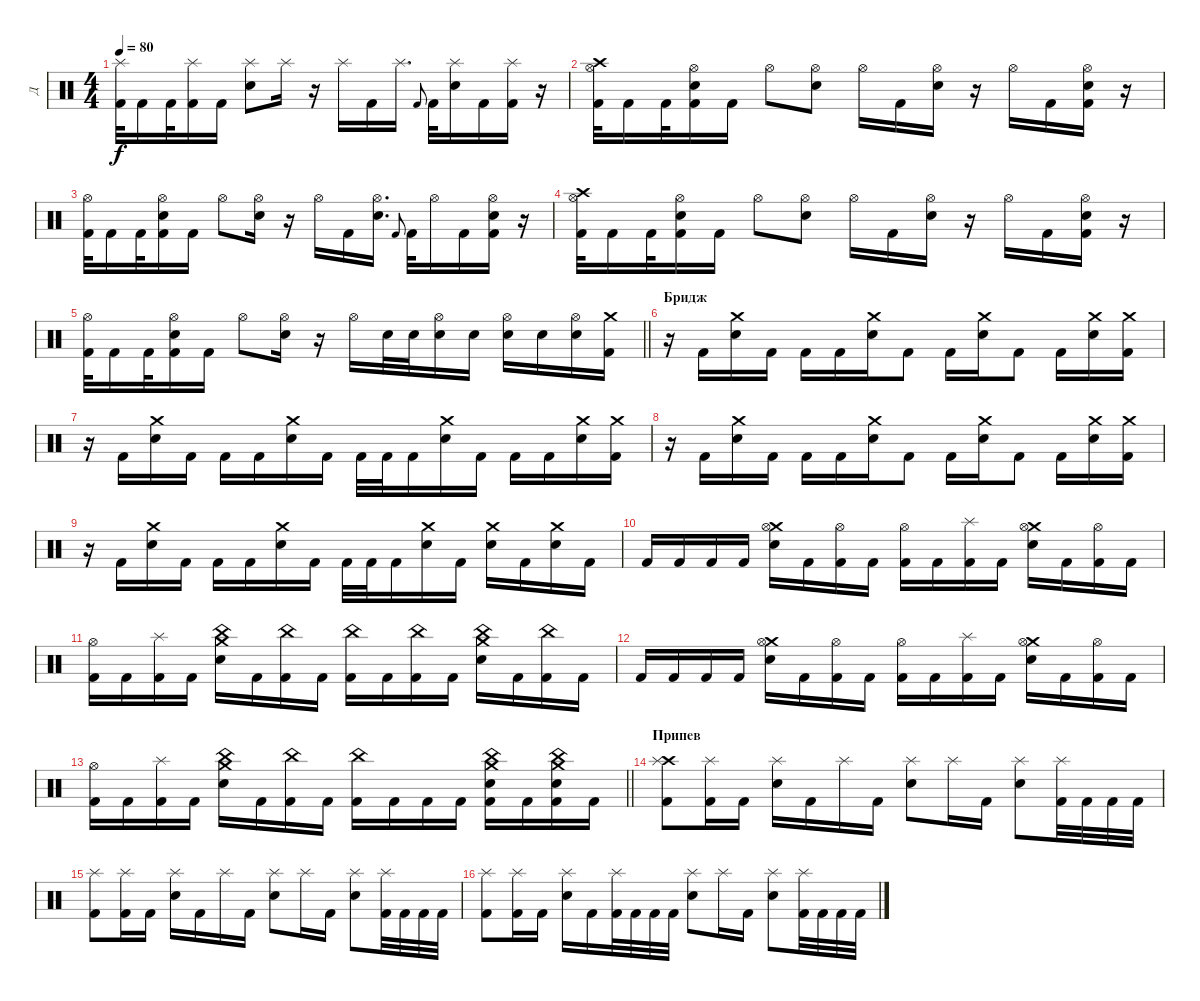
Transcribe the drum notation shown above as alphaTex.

\track ("Д" "Д") {instrument percussion}
\staff {score}
\articulation defaults
\ts (4 4)
\tempo 80
\clef neutral
\ks c
("Kick (hit) 2" "Splash (hit)").32{dy f} "Kick (hit) 2".16 "Kick (hit) 2".32 ("Kick (hit) 2" "Splash (hit)").16 "Kick (hit) 2".16 ("Electric Snare (hit)" "Splash (hit)").8 "Splash (hit)".16 r.16 "Splash (hit)".16 "Kick (hit) 2".16 "Splash (hit)".16{d} "Kick (hit) 2".8{gr onbeat} "Kick (hit) 2".32 ("Electric Snare (hit)" "Splash (hit)").16 "Kick (hit) 2".16 ("Kick (hit) 2" "Splash (hit)").16 r.16 |
("Crash high (hit)" "Kick (hit) 2" "Hi-Hat (open)").32 "Kick (hit) 2".16 "Kick (hit) 2".32 ("Electric Snare (hit)" "Kick (hit) 2" "Hi-Hat (open)").16 "Kick (hit) 2".16 "Hi-Hat (open)".8 ("Electric Snare (hit)" "Hi-Hat (open)").8 "Hi-Hat (open)".16 "Kick (hit) 2".16 ("Electric Snare (hit)" "Hi-Hat (open)").16 r.16 "Hi-Hat (open)".16 "Kick (hit) 2".16 ("Electric Snare (hit)" "Kick (hit) 2" "Hi-Hat (open)").16 r.16 |
("Kick (hit) 2" "Hi-Hat (open)").32 "Kick (hit) 2".16 "Kick (hit) 2".32 ("Electric Snare (hit)" "Kick (hit) 2" "Hi-Hat (open)").16 "Kick (hit) 2".16 "Hi-Hat (open)".8 ("Electric Snare (hit)" "Hi-Hat (open)").16 r.16 "Hi-Hat (open)".16 "Kick (hit) 2".16 ("Electric Snare (hit)" "Hi-Hat (open)").16{d} "Kick (hit) 2".8{gr onbeat} "Kick (hit) 2".32 "Hi-Hat (open)".16 "Kick (hit) 2".16 ("Electric Snare (hit)" "Kick (hit) 2" "Hi-Hat (open)").16 r.16 |
("Crash high (hit)" "Kick (hit) 2" "Hi-Hat (open)").32 "Kick (hit) 2".16 "Kick (hit) 2".32 ("Electric Snare (hit)" "Kick (hit) 2" "Hi-Hat (open)").16 "Kick (hit) 2".16 "Hi-Hat (open)".8 ("Electric Snare (hit)" "Hi-Hat (open)").8 "Hi-Hat (open)".16 "Kick (hit) 2".16 ("Electric Snare (hit)" "Hi-Hat (open)").16 r.16 "Hi-Hat (open)".16 "Kick (hit) 2".16 ("Electric Snare (hit)" "Kick (hit) 2" "Hi-Hat (open)").16 r.16 |
\barLineRight lightlight
("Kick (hit) 2" "Hi-Hat (open)").32 "Kick (hit) 2".16 "Kick (hit) 2".32 ("Electric Snare (hit)" "Kick (hit) 2" "Hi-Hat (open)").16 "Kick (hit) 2".16 "Hi-Hat (open)".8 ("Electric Snare (hit)" "Hi-Hat (open)").16 r.16 "Hi-Hat (open)".16 "Electric Snare (hit)".32 "Electric Snare (hit)".32 ("Electric Snare (hit)" "Hi-Hat (open)").16 "Electric Snare (hit)".16 ("Electric Snare (hit)" "Hi-Hat (open)").16 "Electric Snare (hit)".16 ("Electric Snare (hit)" "Hi-Hat (open)").16 ("Crash medium (hit)" "Kick (hit) 2").16 |
\section ("" "Бридж")
r.16 "Kick (hit) 2".16 ("Crash medium (hit)" "Electric Snare (hit)").16 "Kick (hit) 2".16 "Kick (hit) 2".16 "Kick (hit) 2".16 ("Crash medium (hit)" "Electric Snare (hit)").16 "Kick (hit) 2".8 "Kick (hit) 2".16 ("Crash medium (hit)" "Electric Snare (hit)").16 "Kick (hit) 2".8 "Kick (hit) 2".16 ("Crash medium (hit)" "Electric Snare (hit)").16 ("Crash medium (hit)" "Kick (hit) 2").16 |
r.16 "Kick (hit) 2".16 ("Crash medium (hit)" "Electric Snare (hit)").16 "Kick (hit) 2".16 "Kick (hit) 2".16 "Kick (hit) 2".16 ("Crash medium (hit)" "Electric Snare (hit)").16 "Kick (hit) 2".16 "Kick (hit) 2".32 "Kick (hit) 2".32 "Kick (hit) 2".16 ("Crash medium (hit)" "Electric Snare (hit)").16 "Kick (hit) 2".16 "Kick (hit) 2".16 "Kick (hit) 2".16 ("Crash medium (hit)" "Electric Snare (hit)").16 ("Crash medium (hit)" "Kick (hit) 2").16 |
r.16 "Kick (hit) 2".16 ("Crash medium (hit)" "Electric Snare (hit)").16 "Kick (hit) 2".16 "Kick (hit) 2".16 "Kick (hit) 2".16 ("Crash medium (hit)" "Electric Snare (hit)").16 "Kick (hit) 2".8 "Kick (hit) 2".16 ("Crash medium (hit)" "Electric Snare (hit)").16 "Kick (hit) 2".8 "Kick (hit) 2".16 ("Crash medium (hit)" "Electric Snare (hit)").16 ("Crash medium (hit)" "Kick (hit) 2").16 |
r.16 "Kick (hit) 2".16 ("Crash medium (hit)" "Electric Snare (hit)").16 "Kick (hit) 2".16 "Kick (hit) 2".16 "Kick (hit) 2".16 ("Crash medium (hit)" "Electric Snare (hit)").16 "Kick (hit) 2".16 "Kick (hit) 2".32 "Kick (hit) 2".32 "Kick (hit) 2".16 ("Crash medium (hit)" "Electric Snare (hit)").16 "Kick (hit) 2".16 ("Crash medium (hit)" "Electric Snare (hit)").16 "Kick (hit) 2".16 ("Crash medium (hit)" "Electric Snare (hit)").16 "Kick (hit) 2".16 |
"Kick (hit) 2".16 "Kick (hit) 2".16 "Kick (hit) 2".16 "Kick (hit) 2".16 ("Crash medium (hit)" "Electric Snare (hit)" "Hi-Hat (open)").16 "Kick (hit) 2".16 ("Kick (hit) 2" "Hi-Hat (open)").16 "Kick (hit) 2".16 ("Kick (hit) 2" "Hi-Hat (open)").16 "Kick (hit) 2".16 ("Kick (hit) 2" "Splash (hit)").16 "Kick (hit) 2".16 ("Crash medium (hit)" "Electric Snare (hit)" "Hi-Hat (open)").16 "Kick (hit) 2".16 ("Kick (hit) 2" "Hi-Hat (open)").16 "Kick (hit) 2".16 |
("Kick (hit) 2" "Hi-Hat (open)").16 "Kick (hit) 2".16 ("Kick (hit) 2" "Splash (hit)").16 "Kick (hit) 2".16 ("Crash medium (hit)" "Electric Snare (hit)" "China (hit)").16 "Kick (hit) 2".16 ("Kick (hit) 2" "China (hit)").16 "Kick (hit) 2".16 ("Kick (hit) 2" "China (hit)").16 "Kick (hit) 2".16 ("Kick (hit) 2" "China (hit)").16 "Kick (hit) 2".16 ("Crash medium (hit)" "Electric Snare (hit)" "China (hit)").16 "Kick (hit) 2".16 ("Kick (hit) 2" "China (hit)").16 "Kick (hit) 2".16 |
"Kick (hit) 2".16 "Kick (hit) 2".16 "Kick (hit) 2".16 "Kick (hit) 2".16 ("Crash medium (hit)" "Electric Snare (hit)" "Hi-Hat (open)").16 "Kick (hit) 2".16 ("Kick (hit) 2" "Hi-Hat (open)").16 "Kick (hit) 2".16 ("Kick (hit) 2" "Hi-Hat (open)").16 "Kick (hit) 2".16 ("Kick (hit) 2" "Splash (hit)").16 "Kick (hit) 2".16 ("Crash medium (hit)" "Electric Snare (hit)" "Hi-Hat (open)").16 "Kick (hit) 2".16 ("Kick (hit) 2" "Hi-Hat (open)").16 "Kick (hit) 2".16 |
\barLineRight lightlight
("Kick (hit) 2" "Hi-Hat (open)").16 "Kick (hit) 2".16 ("Kick (hit) 2" "Splash (hit)").16 "Kick (hit) 2".16 ("Crash medium (hit)" "Electric Snare (hit)" "China (hit)").16 "Kick (hit) 2".16 ("Kick (hit) 2" "China (hit)").16 "Kick (hit) 2".16 ("Kick (hit) 2" "China (hit)").16 "Kick (hit) 2".16 "Kick (hit) 2".16 "Kick (hit) 2".16 ("Crash medium (hit)" "Electric Snare (hit)" "Kick (hit) 2" "China (hit)").16 "Kick (hit) 2".16 ("Crash medium (hit)" "Electric Snare (hit)" "Kick (hit) 2" "China (hit)").16 "Kick (hit) 2".16 |
\section ("" "Припев")
("Crash high (hit)" "Kick (hit) 2" "Splash (hit)").8 ("Kick (hit) 2" "Splash (hit)").16 "Kick (hit) 2".16 ("Electric Snare (hit)" "Splash (hit)").16 "Kick (hit) 2".16 "Splash (hit)".16 "Kick (hit) 2".16 ("Electric Snare (hit)" "Splash (hit)").8 "Splash (hit)".16 "Kick (hit) 2".16 ("Electric Snare (hit)" "Splash (hit)").8 ("Kick (hit) 2" "Splash (hit)").32 "Kick (hit) 2".32 "Kick (hit) 2".32 "Kick (hit) 2".32 |
("Kick (hit) 2" "Splash (hit)").8 ("Kick (hit) 2" "Splash (hit)").16 "Kick (hit) 2".16 ("Electric Snare (hit)" "Splash (hit)").16 "Kick (hit) 2".16 "Splash (hit)".16 "Kick (hit) 2".16 ("Electric Snare (hit)" "Splash (hit)").8 "Splash (hit)".16 "Kick (hit) 2".16 ("Electric Snare (hit)" "Splash (hit)").8 ("Kick (hit) 2" "Splash (hit)").32 "Kick (hit) 2".32 "Kick (hit) 2".32 "Kick (hit) 2".32 |
("Kick (hit) 2" "Splash (hit)").8 ("Kick (hit) 2" "Splash (hit)").16 "Kick (hit) 2".16 ("Electric Snare (hit)" "Splash (hit)").16 "Kick (hit) 2".16 ("Kick (hit) 2" "Splash (hit)").32 "Kick (hit) 2".32 "Kick (hit) 2".32 "Kick (hit) 2".32 ("Electric Snare (hit)" "Splash (hit)").8 "Splash (hit)".16 "Kick (hit) 2".16 ("Electric Snare (hit)" "Splash (hit)").8 ("Kick (hit) 2" "Splash (hit)").32 "Kick (hit) 2".32 "Kick (hit) 2".32 "Kick (hit) 2".32
